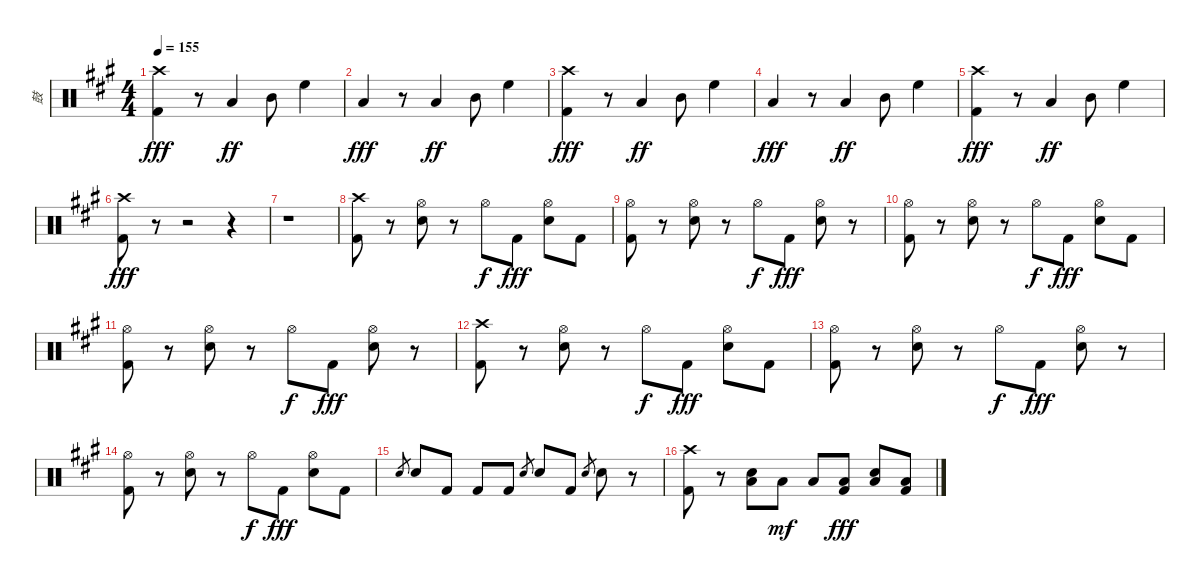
\track ("鼓" "鼓") {instrument percussion}
\staff {score}
\articulation defaults
\ts (4 4)
\tempo 155
\clef neutral
\ks a
("Kick (hit) 2" "Crash high (hit)").4{dy fff} r.8 "Low Tom (hit)".4{dy ff} "Mid Tom (hit)".8 "High Floor Tom (hit)".4 |
"Low Floor Tom (hit)".4{dy fff} r.8 "Low Tom (hit)".4{dy ff} "Mid Tom (hit)".8 "High Floor Tom (hit)".4 |
("Kick (hit) 2" "Crash high (hit)").4{dy fff} r.8 "Low Tom (hit)".4{dy ff} "Mid Tom (hit)".8 "High Floor Tom (hit)".4 |
"Low Floor Tom (hit)".4{dy fff} r.8 "Low Tom (hit)".4{dy ff} "Mid Tom (hit)".8 "High Floor Tom (hit)".4 |
("Kick (hit) 2" "Crash high (hit)").4{dy fff} r.8 "Low Tom (hit)".4{dy ff} "Mid Tom (hit)".8 "High Floor Tom (hit)".4 |
("Crash high (hit)" "Kick (hit) 2").8{dy fff} r.8 r.2 r.4 |
r.1 |
("Kick (hit) 2" "Crash high (hit)").8 r.8 ("Hi-Hat (open)" "Electric Snare (hit)").8 r.8 "Hi-Hat (open)".8{dy f} "Kick (hit) 2".8{dy fff} ("Hi-Hat (open)" "Electric Snare (hit)").8 "Kick (hit) 2".8 |
("Hi-Hat (open)" "Kick (hit) 2").8 r.8 ("Hi-Hat (open)" "Electric Snare (hit)").8 r.8 "Hi-Hat (open)".8{dy f} "Kick (hit) 2".8{dy fff} ("Hi-Hat (open)" "Electric Snare (hit)").8 r.8 |
("Hi-Hat (open)" "Kick (hit) 2").8 r.8 ("Hi-Hat (open)" "Electric Snare (hit)").8 r.8 "Hi-Hat (open)".8{dy f} "Kick (hit) 2".8{dy fff} ("Hi-Hat (open)" "Electric Snare (hit)").8 "Kick (hit) 2".8 |
("Hi-Hat (open)" "Kick (hit) 2").8 r.8 ("Hi-Hat (open)" "Electric Snare (hit)").8 r.8 "Hi-Hat (open)".8{dy f} "Kick (hit) 2".8{dy fff} ("Hi-Hat (open)" "Electric Snare (hit)").8 r.8 |
("Kick (hit) 2" "Crash high (hit)").8 r.8 ("Hi-Hat (open)" "Electric Snare (hit)").8 r.8 "Hi-Hat (open)".8{dy f} "Kick (hit) 2".8{dy fff} ("Hi-Hat (open)" "Electric Snare (hit)").8 "Kick (hit) 2".8 |
("Hi-Hat (open)" "Kick (hit) 2").8 r.8 ("Hi-Hat (open)" "Electric Snare (hit)").8 r.8 "Hi-Hat (open)".8{dy f} "Kick (hit) 2".8{dy fff} ("Hi-Hat (open)" "Electric Snare (hit)").8 r.8 |
("Hi-Hat (open)" "Kick (hit) 2").8 r.8 ("Hi-Hat (open)" "Electric Snare (hit)").8 r.8 "Hi-Hat (open)".8{dy f} "Kick (hit) 2".8{dy fff} ("Hi-Hat (open)" "Electric Snare (hit)").8 "Kick (hit) 2".8 |
"Electric Snare (hit)".8{gr} "Electric Snare (hit)".8 "Kick (hit) 2".8 "Kick (hit) 2".8 "Kick (hit) 2".8 "Electric Snare (hit)".8{gr} "Electric Snare (hit)".8 "Kick (hit) 2".8 "Electric Snare (hit)".8{gr} "Electric Snare (hit)".8 r.8 |
("Kick (hit) 2" "Crash high (hit)").8 r.8 ("Low Floor Tom (hit)" "Electric Snare (hit)").8 "Low Floor Tom (hit)".8{dy mf} "Low Floor Tom (hit)".8 ("Low Floor Tom (hit)" "Kick (hit) 2").8{dy fff} ("Low Floor Tom (hit)" "Electric Snare (hit)").8 ("Low Floor Tom (hit)" "Kick (hit) 2").8
